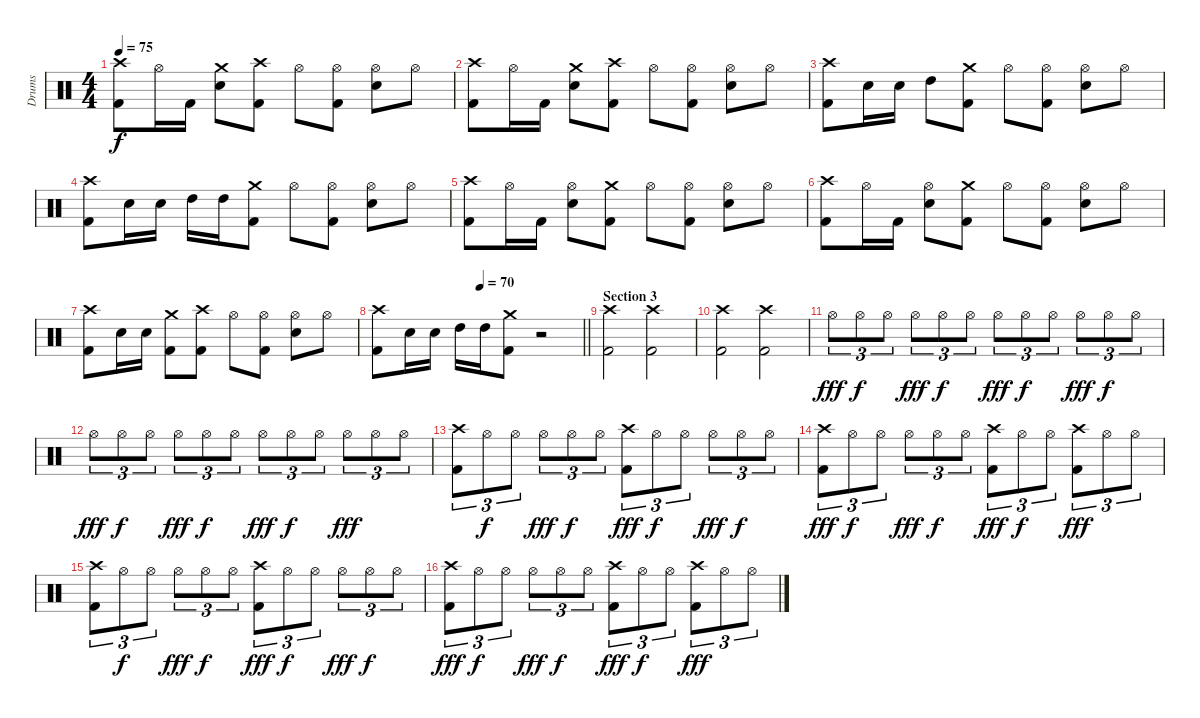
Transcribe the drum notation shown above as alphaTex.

\track ("Drums" "Drums") {instrument percussion}
\staff {score}
\articulation defaults
\ts (4 4)
\tempo 75
\clef neutral
\ks c
("Crash high (hit)" "Kick (hit) 2").8{dy f} "Hi-Hat (open)".16 "Kick (hit) 2".16 ("Crash medium (hit)" "Electric Snare (hit)").8 ("Crash high (hit)" "Kick (hit) 2").8 "Hi-Hat (open)".8 ("Hi-Hat (open)" "Kick (hit) 2").8 ("Hi-Hat (open)" "Electric Snare (hit)").8 "Hi-Hat (open)".8 |
("Crash high (hit)" "Kick (hit) 2").8 "Hi-Hat (open)".16 "Kick (hit) 2".16 ("Crash medium (hit)" "Electric Snare (hit)").8 ("Crash high (hit)" "Kick (hit) 2").8 "Hi-Hat (open)".8 ("Hi-Hat (open)" "Kick (hit) 2").8 ("Hi-Hat (open)" "Electric Snare (hit)").8 "Hi-Hat (open)".8 |
("Crash high (hit)" "Kick (hit) 2").8 "Electric Snare (hit)".16 "Electric Snare (hit)".16 "High Tom (hit)".8 ("Crash medium (hit)" "Kick (hit) 2").8 "Hi-Hat (open)".8 ("Hi-Hat (open)" "Kick (hit) 2").8 ("Hi-Hat (open)" "Electric Snare (hit)").8 "Hi-Hat (open)".8 |
("Crash high (hit)" "Kick (hit) 2").8 "Electric Snare (hit)".16 "Electric Snare (hit)".16 "High Tom (hit)".16 "High Tom (hit)".16 ("Crash medium (hit)" "Kick (hit) 2").8 "Hi-Hat (open)".8 ("Hi-Hat (open)" "Kick (hit) 2").8 ("Hi-Hat (open)" "Electric Snare (hit)").8 "Hi-Hat (open)".8 |
("Crash high (hit)" "Kick (hit) 2").8 "Hi-Hat (open)".16 "Kick (hit) 2".16 ("Hi-Hat (open)" "Electric Snare (hit)").8 ("Crash medium (hit)" "Kick (hit) 2").8 "Hi-Hat (open)".8 ("Hi-Hat (open)" "Kick (hit) 2").8 ("Hi-Hat (open)" "Electric Snare (hit)").8 "Hi-Hat (open)".8 |
("Crash high (hit)" "Kick (hit) 2").8 "Hi-Hat (open)".16 "Kick (hit) 2".16 ("Hi-Hat (open)" "Electric Snare (hit)").8 ("Crash medium (hit)" "Kick (hit) 2").8 "Hi-Hat (open)".8 ("Hi-Hat (open)" "Kick (hit) 2").8 ("Hi-Hat (open)" "Electric Snare (hit)").8 "Hi-Hat (open)".8 |
("Crash high (hit)" "Kick (hit) 2").8 "Electric Snare (hit)".16 "Electric Snare (hit)".16 ("Crash medium (hit)" "Kick (hit) 2").8 ("Crash high (hit)" "Kick (hit) 2").8 "Hi-Hat (open)".8 ("Hi-Hat (open)" "Kick (hit) 2").8 ("Hi-Hat (open)" "Electric Snare (hit)").8 "Hi-Hat (open)".8 |
\tempo (70 0.5)
\barLineRight lightlight
("Crash high (hit)" "Kick (hit) 2").8 "Electric Snare (hit)".16 "Electric Snare (hit)".16 "High Tom (hit)".16 "High Tom (hit)".16 ("Crash medium (hit)" "Kick (hit) 2").8 r.2 |
\section ("" "Section 3")
("Crash high (hit)" "Kick (hit) 2").2 ("Crash high (hit)" "Kick (hit) 2").2 |
("Crash high (hit)" "Kick (hit) 2").2 ("Crash high (hit)" "Kick (hit) 2").2 |
"Hi-Hat (open)".8{tu (3 2) dy fff} "Hi-Hat (open)".8{tu (3 2) dy f} "Hi-Hat (open)".8{tu (3 2)} "Hi-Hat (open)".8{tu (3 2) dy fff} "Hi-Hat (open)".8{tu (3 2) dy f} "Hi-Hat (open)".8{tu (3 2)} "Hi-Hat (open)".8{tu (3 2) dy fff} "Hi-Hat (open)".8{tu (3 2) dy f} "Hi-Hat (open)".8{tu (3 2)} "Hi-Hat (open)".8{tu (3 2) dy fff} "Hi-Hat (open)".8{tu (3 2) dy f} "Hi-Hat (open)".8{tu (3 2)} |
"Hi-Hat (open)".8{tu (3 2) dy fff} "Hi-Hat (open)".8{tu (3 2) dy f} "Hi-Hat (open)".8{tu (3 2)} "Hi-Hat (open)".8{tu (3 2) dy fff} "Hi-Hat (open)".8{tu (3 2) dy f} "Hi-Hat (open)".8{tu (3 2)} "Hi-Hat (open)".8{tu (3 2) dy fff} "Hi-Hat (open)".8{tu (3 2) dy f} "Hi-Hat (open)".8{tu (3 2)} "Hi-Hat (open)".8{tu (3 2) dy fff} "Hi-Hat (open)".8{tu (3 2)} "Hi-Hat (open)".8{tu (3 2)} |
("Crash high (hit)" "Kick (hit) 2").8{tu (3 2)} "Hi-Hat (open)".8{tu (3 2) dy f} "Hi-Hat (open)".8{tu (3 2)} "Hi-Hat (open)".8{tu (3 2) dy fff} "Hi-Hat (open)".8{tu (3 2) dy f} "Hi-Hat (open)".8{tu (3 2)} ("Crash high (hit)" "Kick (hit) 2").8{tu (3 2) dy fff} "Hi-Hat (open)".8{tu (3 2) dy f} "Hi-Hat (open)".8{tu (3 2)} "Hi-Hat (open)".8{tu (3 2) dy fff} "Hi-Hat (open)".8{tu (3 2) dy f} "Hi-Hat (open)".8{tu (3 2)} |
("Crash high (hit)" "Kick (hit) 2").8{tu (3 2) dy fff} "Hi-Hat (open)".8{tu (3 2) dy f} "Hi-Hat (open)".8{tu (3 2)} "Hi-Hat (open)".8{tu (3 2) dy fff} "Hi-Hat (open)".8{tu (3 2) dy f} "Hi-Hat (open)".8{tu (3 2)} ("Crash high (hit)" "Kick (hit) 2").8{tu (3 2) dy fff} "Hi-Hat (open)".8{tu (3 2) dy f} "Hi-Hat (open)".8{tu (3 2)} ("Crash high (hit)" "Kick (hit) 2").8{tu (3 2) dy fff} "Hi-Hat (open)".8{tu (3 2)} "Hi-Hat (open)".8{tu (3 2)} |
("Crash high (hit)" "Kick (hit) 2").8{tu (3 2)} "Hi-Hat (open)".8{tu (3 2) dy f} "Hi-Hat (open)".8{tu (3 2)} "Hi-Hat (open)".8{tu (3 2) dy fff} "Hi-Hat (open)".8{tu (3 2) dy f} "Hi-Hat (open)".8{tu (3 2)} ("Crash high (hit)" "Kick (hit) 2").8{tu (3 2) dy fff} "Hi-Hat (open)".8{tu (3 2) dy f} "Hi-Hat (open)".8{tu (3 2)} "Hi-Hat (open)".8{tu (3 2) dy fff} "Hi-Hat (open)".8{tu (3 2) dy f} "Hi-Hat (open)".8{tu (3 2)} |
("Crash high (hit)" "Kick (hit) 2").8{tu (3 2) dy fff} "Hi-Hat (open)".8{tu (3 2) dy f} "Hi-Hat (open)".8{tu (3 2)} "Hi-Hat (open)".8{tu (3 2) dy fff} "Hi-Hat (open)".8{tu (3 2) dy f} "Hi-Hat (open)".8{tu (3 2)} ("Crash high (hit)" "Kick (hit) 2").8{tu (3 2) dy fff} "Hi-Hat (open)".8{tu (3 2) dy f} "Hi-Hat (open)".8{tu (3 2)} ("Crash high (hit)" "Kick (hit) 2").8{tu (3 2) dy fff} "Hi-Hat (open)".8{tu (3 2)} "Hi-Hat (open)".8{tu (3 2)}
